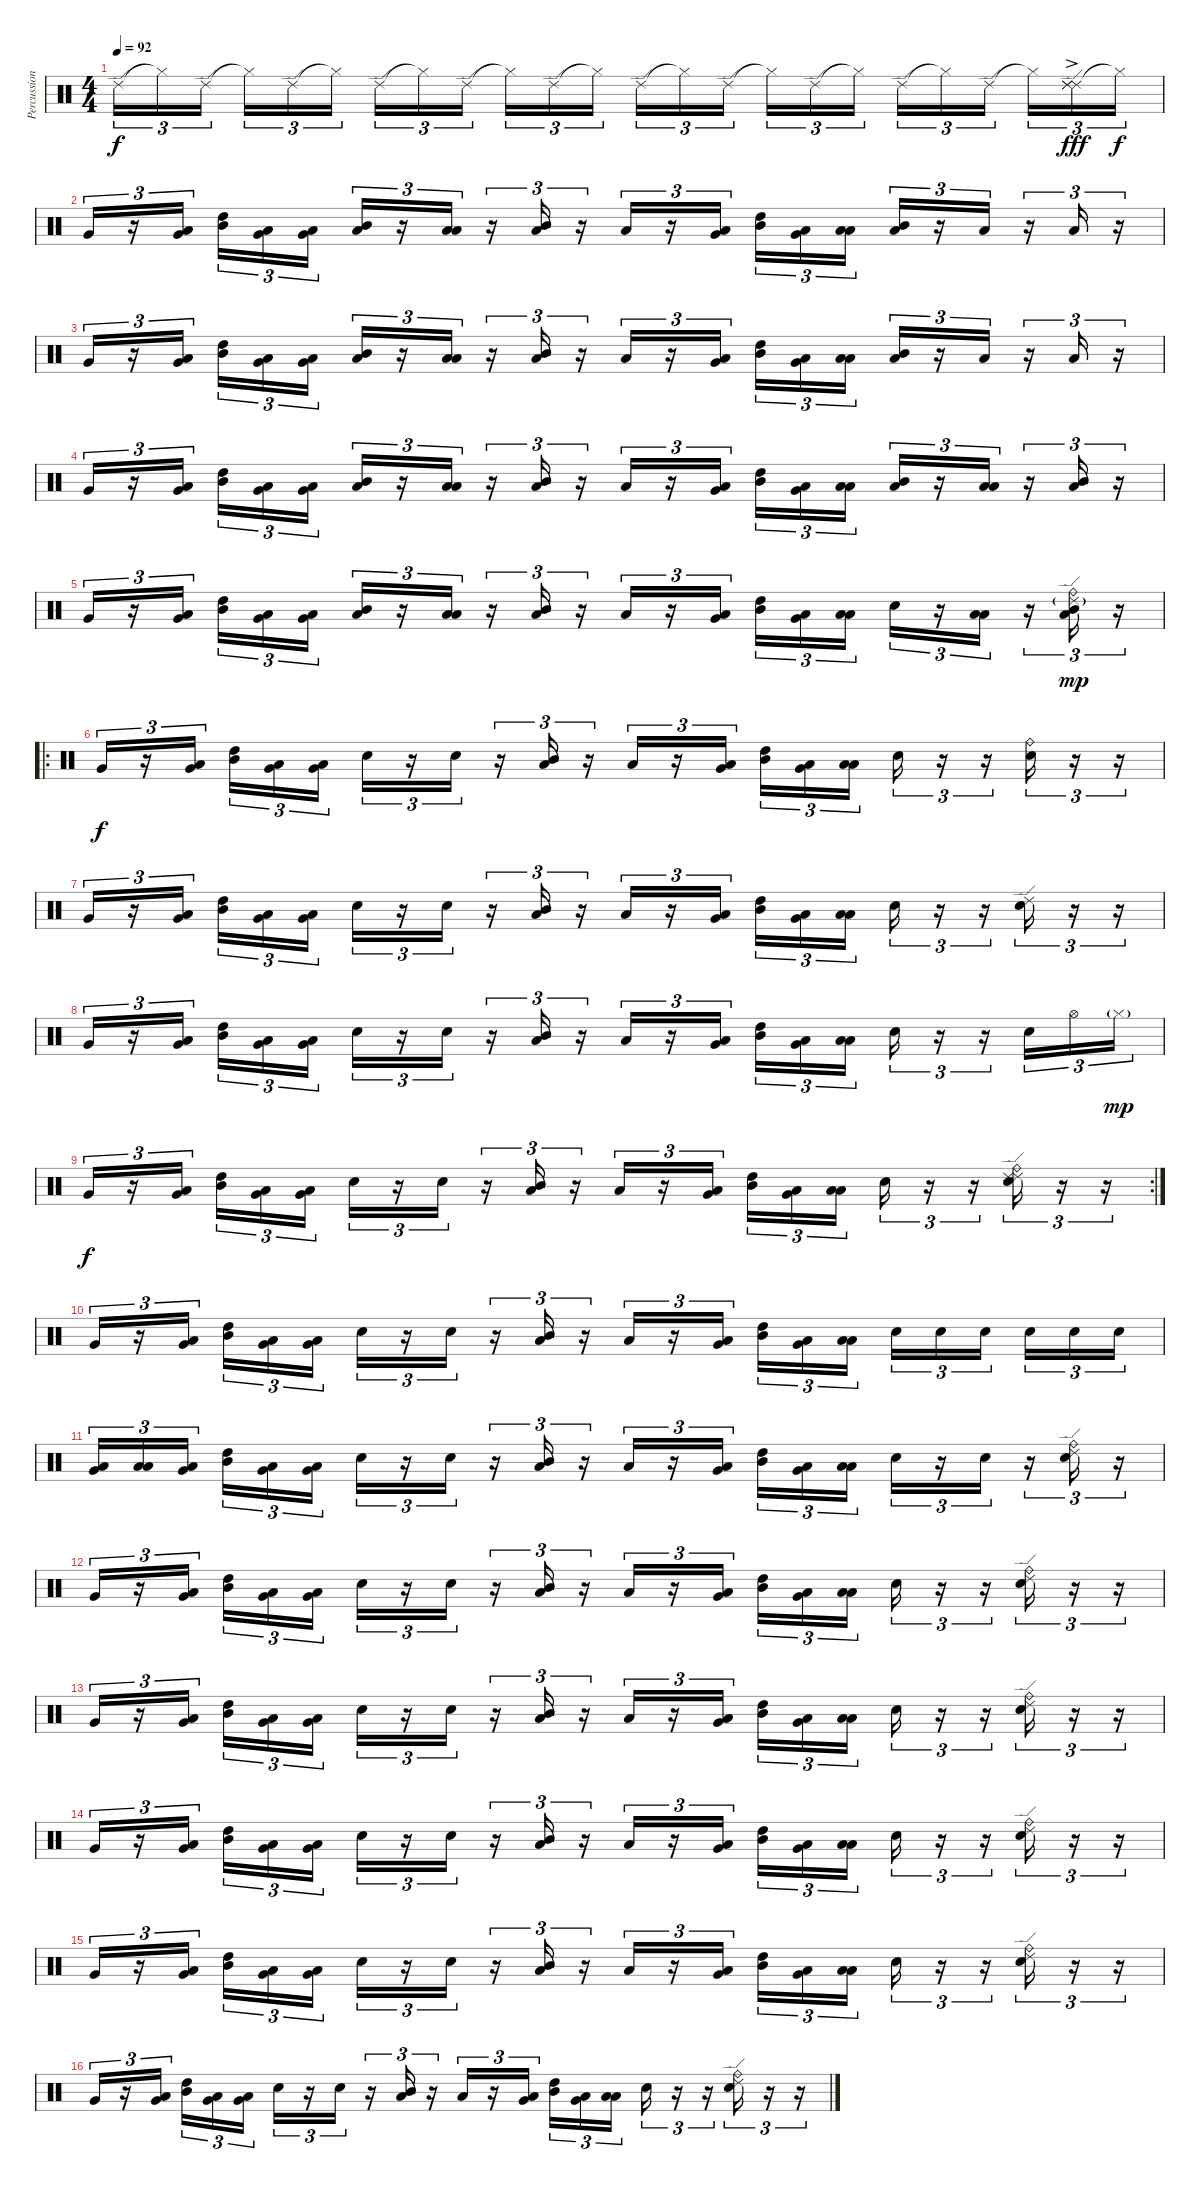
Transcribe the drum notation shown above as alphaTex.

\track ("Percussions" "Percussion") {instrument percussion}
\staff {score}
\articulation defaults
\ts (4 4)
\tempo 92
\clef neutral
\ks c "Ride (edge) 2".16{tu (3 2) dy f} "Hi-Hat (closed)"{t}.16{tu (3 2)} "Ride (edge) 2".16{tu (3 2)} "Hi-Hat (closed)"{t}.16{tu (3 2)} "Ride (edge) 2".16{tu (3 2)} "Hi-Hat (closed)"{t}.16{tu (3 2)} "Ride (edge) 2".16{tu (3 2)} "Hi-Hat (closed)"{t}.16{tu (3 2)} "Ride (edge) 2".16{tu (3 2)} "Hi-Hat (closed)"{t}.16{tu (3 2)} "Ride (edge) 2".16{tu (3 2)} "Hi-Hat (closed)"{t}.16{tu (3 2)} "Ride (edge) 2".16{tu (3 2)} "Hi-Hat (closed)"{t}.16{tu (3 2)} "Ride (edge) 2".16{tu (3 2)} "Hi-Hat (closed)"{t}.16{tu (3 2)} "Ride (edge) 2".16{tu (3 2)} "Hi-Hat (closed)"{t}.16{tu (3 2)} "Ride (edge) 2".16{tu (3 2)} "Hi-Hat (closed)"{t}.16{tu (3 2)} "Ride (edge) 2".16{tu (3 2)} "Hi-Hat (closed)"{t}.16{tu (3 2)}
("Ride (edge) 2" "Ride (edge) 2" "Ride (edge) 2"{ac}).16{tu (3 2) dy fff} "Hi-Hat (closed)"{t}.16{tu (3 2) dy f} |
"Very Low Tom (hit)".16{tu (3 2)} r.16{tu (3 2)} ("Very Low Tom (hit)" "Low Tom (hit)").16{tu (3 2)} ("Mid Tom (hit)" "High Tom (hit)").16{tu (3 2)} ("Low Tom (hit)" "Very Low Tom (hit)").16{tu (3 2)} ("Low Tom (hit)" "Very Low Tom (hit)").16{tu (3 2)} ("Low Tom (hit)" "Mid Tom (hit)").16{tu (3 2)} r.16{tu (3 2)} ("Low Floor Tom (hit)" "Low Tom (hit)").16{tu (3 2)} r.16{tu (3 2)} ("Low Tom (hit)" "Mid Tom (hit)").16{tu (3 2)} r.16{tu (3 2)} "Low Floor Tom (hit)".16{tu (3 2)} r.16{tu (3 2)} ("Very Low Tom (hit)" "Low Tom (hit)").16{tu (3 2)} ("Mid Tom (hit)" "High Tom (hit)").16{tu (3 2)} ("Low Tom (hit)" "Very Low Tom (hit)").16{tu (3 2)} ("Low Floor Tom (hit)" "Low Tom (hit)").16{tu (3 2)} ("Low Tom (hit)" "Mid Tom (hit)").16{tu (3 2)} r.16{tu (3 2)} "Low Floor Tom (hit)".16{tu (3 2)} r.16{tu (3 2)} "Low Floor Tom (hit)".16{tu (3 2)} r.16{tu (3 2)} |
"Very Low Tom (hit)".16{tu (3 2)} r.16{tu (3 2)} ("Very Low Tom (hit)" "Low Tom (hit)").16{tu (3 2)} ("Mid Tom (hit)" "High Tom (hit)").16{tu (3 2)} ("Low Tom (hit)" "Very Low Tom (hit)").16{tu (3 2)} ("Low Tom (hit)" "Very Low Tom (hit)").16{tu (3 2)} ("Low Tom (hit)" "Mid Tom (hit)").16{tu (3 2)} r.16{tu (3 2)} ("Low Floor Tom (hit)" "Low Tom (hit)").16{tu (3 2)} r.16{tu (3 2)} ("Low Tom (hit)" "Mid Tom (hit)").16{tu (3 2)} r.16{tu (3 2)} "Low Floor Tom (hit)".16{tu (3 2)} r.16{tu (3 2)} ("Very Low Tom (hit)" "Low Tom (hit)").16{tu (3 2)} ("Mid Tom (hit)" "High Tom (hit)").16{tu (3 2)} ("Low Tom (hit)" "Very Low Tom (hit)").16{tu (3 2)} ("Low Floor Tom (hit)" "Low Tom (hit)").16{tu (3 2)} ("Low Tom (hit)" "Mid Tom (hit)").16{tu (3 2)} r.16{tu (3 2)} "Low Floor Tom (hit)".16{tu (3 2)} r.16{tu (3 2)} "Low Floor Tom (hit)".16{tu (3 2)} r.16{tu (3 2)} |
"Very Low Tom (hit)".16{tu (3 2)} r.16{tu (3 2)} ("Very Low Tom (hit)" "Low Tom (hit)").16{tu (3 2)} ("Mid Tom (hit)" "High Tom (hit)").16{tu (3 2)} ("Low Tom (hit)" "Very Low Tom (hit)").16{tu (3 2)} ("Low Tom (hit)" "Very Low Tom (hit)").16{tu (3 2)} ("Low Tom (hit)" "Mid Tom (hit)").16{tu (3 2)} r.16{tu (3 2)} ("Low Floor Tom (hit)" "Low Tom (hit)").16{tu (3 2)} r.16{tu (3 2)} ("Low Tom (hit)" "Mid Tom (hit)").16{tu (3 2)} r.16{tu (3 2)} "Low Floor Tom (hit)".16{tu (3 2)} r.16{tu (3 2)} ("Very Low Tom (hit)" "Low Tom (hit)").16{tu (3 2)} ("Mid Tom (hit)" "High Tom (hit)").16{tu (3 2)} ("Low Tom (hit)" "Very Low Tom (hit)").16{tu (3 2)} ("Low Floor Tom (hit)" "Low Tom (hit)").16{tu (3 2)} ("Low Tom (hit)" "Mid Tom (hit)").16{tu (3 2)} r.16{tu (3 2)} ("Low Floor Tom (hit)" "Low Tom (hit)").16{tu (3 2)} r.16{tu (3 2)} ("Low Tom (hit)" "Mid Tom (hit)").16{tu (3 2)} r.16{tu (3 2)} |
"Very Low Tom (hit)".16{tu (3 2)} r.16{tu (3 2)} ("Very Low Tom (hit)" "Low Tom (hit)").16{tu (3 2)} ("Mid Tom (hit)" "High Tom (hit)").16{tu (3 2)} ("Low Tom (hit)" "Very Low Tom (hit)").16{tu (3 2)} ("Low Tom (hit)" "Very Low Tom (hit)").16{tu (3 2)} ("Low Tom (hit)" "Mid Tom (hit)").16{tu (3 2)} r.16{tu (3 2)} ("Low Floor Tom (hit)" "Low Tom (hit)").16{tu (3 2)} r.16{tu (3 2)} ("Low Tom (hit)" "Mid Tom (hit)").16{tu (3 2)} r.16{tu (3 2)} "Low Floor Tom (hit)".16{tu (3 2)} r.16{tu (3 2)} ("Very Low Tom (hit)" "Low Tom (hit)").16{tu (3 2)} ("Mid Tom (hit)" "High Tom (hit)").16{tu (3 2)} ("Low Tom (hit)" "Very Low Tom (hit)").16{tu (3 2)} ("Low Floor Tom (hit)" "Low Tom (hit)").16{tu (3 2)} "Electric Snare (hit)".16{tu (3 2)} r.16{tu (3 2)} ("Low Floor Tom (hit)" "Low Tom (hit)").16{tu (3 2)} r.16{tu (3 2)} ("Ride (bell)" "Ride (edge) 2"{g} "Low Tom (hit)" "Mid Tom (hit)").16{tu (3 2) dy mp} r.16{tu (3 2)} |
\ro "Very Low Tom (hit)".16{tu (3 2) dy f}
r.16{tu (3 2)} ("Very Low Tom (hit)" "Low Tom (hit)").16{tu (3 2)} ("Mid Tom (hit)" "High Tom (hit)").16{tu (3 2)} ("Low Tom (hit)" "Very Low Tom (hit)").16{tu (3 2)} ("Low Tom (hit)" "Very Low Tom (hit)").16{tu (3 2)} "Electric Snare (hit)".16{tu (3 2)} r.16{tu (3 2)} "Electric Snare (hit)".16{tu (3 2)} r.16{tu (3 2)} ("Low Tom (hit)" "Mid Tom (hit)").16{tu (3 2)} r.16{tu (3 2)} "Low Floor Tom (hit)".16{tu (3 2)} r.16{tu (3 2)} ("Very Low Tom (hit)" "Low Tom (hit)").16{tu (3 2)} ("Mid Tom (hit)" "High Tom (hit)").16{tu (3 2)} ("Low Tom (hit)" "Very Low Tom (hit)").16{tu (3 2)} ("Low Floor Tom (hit)" "Low Tom (hit)").16{tu (3 2)} "Electric Snare (hit)".16{tu (3 2)} r.16{tu (3 2)} r.16{tu (3 2)} ("Ride (bell)" "Electric Snare (hit)").16{tu (3 2)} r.16{tu (3 2)} r.16{tu (3 2)} |
"Very Low Tom (hit)".16{tu (3 2)} r.16{tu (3 2)} ("Very Low Tom (hit)" "Low Tom (hit)").16{tu (3 2)} ("Mid Tom (hit)" "High Tom (hit)").16{tu (3 2)} ("Low Tom (hit)" "Very Low Tom (hit)").16{tu (3 2)} ("Low Tom (hit)" "Very Low Tom (hit)").16{tu (3 2)} "Electric Snare (hit)".16{tu (3 2)} r.16{tu (3 2)} "Electric Snare (hit)".16{tu (3 2)} r.16{tu (3 2)} ("Low Tom (hit)" "Mid Tom (hit)").16{tu (3 2)} r.16{tu (3 2)} "Low Floor Tom (hit)".16{tu (3 2)} r.16{tu (3 2)} ("Very Low Tom (hit)" "Low Tom (hit)").16{tu (3 2)} ("Mid Tom (hit)" "High Tom (hit)").16{tu (3 2)} ("Low Tom (hit)" "Very Low Tom (hit)").16{tu (3 2)} ("Low Floor Tom (hit)" "Low Tom (hit)").16{tu (3 2)} "Electric Snare (hit)".16{tu (3 2)} r.16{tu (3 2)} r.16{tu (3 2)} ("Ride (edge) 2" "Electric Snare (hit)").16{tu (3 2)} r.16{tu (3 2)} r.16{tu (3 2)} |
"Very Low Tom (hit)".16{tu (3 2)} r.16{tu (3 2)} ("Very Low Tom (hit)" "Low Tom (hit)").16{tu (3 2)} ("Mid Tom (hit)" "High Tom (hit)").16{tu (3 2)} ("Low Tom (hit)" "Very Low Tom (hit)").16{tu (3 2)} ("Low Tom (hit)" "Very Low Tom (hit)").16{tu (3 2)} "Electric Snare (hit)".16{tu (3 2)} r.16{tu (3 2)} "Electric Snare (hit)".16{tu (3 2)} r.16{tu (3 2)} ("Low Tom (hit)" "Mid Tom (hit)").16{tu (3 2)} r.16{tu (3 2)} "Low Floor Tom (hit)".16{tu (3 2)} r.16{tu (3 2)} ("Very Low Tom (hit)" "Low Tom (hit)").16{tu (3 2)} ("Mid Tom (hit)" "High Tom (hit)").16{tu (3 2)} ("Low Tom (hit)" "Very Low Tom (hit)").16{tu (3 2)} ("Low Floor Tom (hit)" "Low Tom (hit)").16{tu (3 2)} "Electric Snare (hit)".16{tu (3 2)} r.16{tu (3 2)} r.16{tu (3 2)} "Electric Snare (hit)".16{tu (3 2)} "Hi-Hat (open)".16{tu (3 2)} "Hi-Hat (closed)"{g}.16{tu (3 2) dy mp} |
\rc 2 "Very Low Tom (hit)".16{tu (3 2) dy f}
r.16{tu (3 2)} ("Very Low Tom (hit)" "Low Tom (hit)").16{tu (3 2)} ("Mid Tom (hit)" "High Tom (hit)").16{tu (3 2)} ("Low Tom (hit)" "Very Low Tom (hit)").16{tu (3 2)} ("Low Tom (hit)" "Very Low Tom (hit)").16{tu (3 2)} "Electric Snare (hit)".16{tu (3 2)} r.16{tu (3 2)} "Electric Snare (hit)".16{tu (3 2)} r.16{tu (3 2)} ("Low Tom (hit)" "Mid Tom (hit)").16{tu (3 2)} r.16{tu (3 2)} "Low Floor Tom (hit)".16{tu (3 2)} r.16{tu (3 2)} ("Very Low Tom (hit)" "Low Tom (hit)").16{tu (3 2)} ("Mid Tom (hit)" "High Tom (hit)").16{tu (3 2)} ("Low Tom (hit)" "Very Low Tom (hit)").16{tu (3 2)} ("Low Floor Tom (hit)" "Low Tom (hit)").16{tu (3 2)} "Electric Snare (hit)".16{tu (3 2)} r.16{tu (3 2)} r.16{tu (3 2)} ("Ride (bell)" "Ride (edge) 2" "Ride (edge) 2" "Electric Snare (hit)").16{tu (3 2)} r.16{tu (3 2)} r.16{tu (3 2)} |
"Very Low Tom (hit)".16{tu (3 2)} r.16{tu (3 2)} ("Very Low Tom (hit)" "Low Tom (hit)").16{tu (3 2)} ("Mid Tom (hit)" "High Tom (hit)").16{tu (3 2)} ("Low Tom (hit)" "Very Low Tom (hit)").16{tu (3 2)} ("Low Tom (hit)" "Very Low Tom (hit)").16{tu (3 2)} "Electric Snare (hit)".16{tu (3 2)} r.16{tu (3 2)} "Electric Snare (hit)".16{tu (3 2)} r.16{tu (3 2)} ("Low Tom (hit)" "Mid Tom (hit)").16{tu (3 2)} r.16{tu (3 2)} "Low Floor Tom (hit)".16{tu (3 2)} r.16{tu (3 2)} ("Very Low Tom (hit)" "Low Tom (hit)").16{tu (3 2)} ("Mid Tom (hit)" "High Tom (hit)").16{tu (3 2)} ("Low Tom (hit)" "Very Low Tom (hit)").16{tu (3 2)} ("Low Floor Tom (hit)" "Low Tom (hit)").16{tu (3 2)} "Electric Snare (hit)".16{tu (3 2)} "Electric Snare (hit)".16{tu (3 2)} "Electric Snare (hit)".16{tu (3 2)} "Electric Snare (hit)".16{tu (3 2)} "Electric Snare (hit)".16{tu (3 2)} "Electric Snare (hit)".16{tu (3 2)} |
("Low Floor Tom (hit)" "Very Low Tom (hit)").16{tu (3 2)} ("Low Floor Tom (hit)" "Low Floor Tom (hit)").16{tu (3 2)} ("Very Low Tom (hit)" "Low Tom (hit)").16{tu (3 2)} ("Mid Tom (hit)" "High Tom (hit)").16{tu (3 2)} ("Low Tom (hit)" "Very Low Tom (hit)").16{tu (3 2)} ("Low Tom (hit)" "Very Low Tom (hit)").16{tu (3 2)} "Electric Snare (hit)".16{tu (3 2)} r.16{tu (3 2)} "Electric Snare (hit)".16{tu (3 2)} r.16{tu (3 2)} ("Low Tom (hit)" "Mid Tom (hit)").16{tu (3 2)} r.16{tu (3 2)} "Low Floor Tom (hit)".16{tu (3 2)} r.16{tu (3 2)} ("Very Low Tom (hit)" "Low Tom (hit)").16{tu (3 2)} ("Mid Tom (hit)" "High Tom (hit)").16{tu (3 2)} ("Low Tom (hit)" "Very Low Tom (hit)").16{tu (3 2)} ("Low Floor Tom (hit)" "Low Tom (hit)").16{tu (3 2)} "Electric Snare (hit)".16{tu (3 2)} r.16{tu (3 2)} "Electric Snare (hit)".16{tu (3 2)} r.16{tu (3 2)} ("Ride (edge) 2" "Ride (bell)" "Electric Snare (hit)").16{tu (3 2)} r.16{tu (3 2)} |
"Very Low Tom (hit)".16{tu (3 2)} r.16{tu (3 2)} ("Very Low Tom (hit)" "Low Tom (hit)").16{tu (3 2)} ("Mid Tom (hit)" "High Tom (hit)").16{tu (3 2)} ("Low Tom (hit)" "Very Low Tom (hit)").16{tu (3 2)} ("Low Tom (hit)" "Very Low Tom (hit)").16{tu (3 2)} "Electric Snare (hit)".16{tu (3 2)} r.16{tu (3 2)} "Electric Snare (hit)".16{tu (3 2)} r.16{tu (3 2)} ("Low Tom (hit)" "Mid Tom (hit)").16{tu (3 2)} r.16{tu (3 2)} "Low Floor Tom (hit)".16{tu (3 2)} r.16{tu (3 2)} ("Very Low Tom (hit)" "Low Tom (hit)").16{tu (3 2)} ("Mid Tom (hit)" "High Tom (hit)").16{tu (3 2)} ("Low Tom (hit)" "Very Low Tom (hit)").16{tu (3 2)} ("Low Floor Tom (hit)" "Low Tom (hit)").16{tu (3 2)} "Electric Snare (hit)".16{tu (3 2)} r.16{tu (3 2)} r.16{tu (3 2)} ("Ride (bell)" "Ride (edge) 2" "Electric Snare (hit)").16{tu (3 2)} r.16{tu (3 2)} r.16{tu (3 2)} |
"Very Low Tom (hit)".16{tu (3 2)} r.16{tu (3 2)} ("Very Low Tom (hit)" "Low Tom (hit)").16{tu (3 2)} ("Mid Tom (hit)" "High Tom (hit)").16{tu (3 2)} ("Low Tom (hit)" "Very Low Tom (hit)").16{tu (3 2)} ("Low Tom (hit)" "Very Low Tom (hit)").16{tu (3 2)} "Electric Snare (hit)".16{tu (3 2)} r.16{tu (3 2)} "Electric Snare (hit)".16{tu (3 2)} r.16{tu (3 2)} ("Low Tom (hit)" "Mid Tom (hit)").16{tu (3 2)} r.16{tu (3 2)} "Low Floor Tom (hit)".16{tu (3 2)} r.16{tu (3 2)} ("Very Low Tom (hit)" "Low Tom (hit)").16{tu (3 2)} ("Mid Tom (hit)" "High Tom (hit)").16{tu (3 2)} ("Low Tom (hit)" "Very Low Tom (hit)").16{tu (3 2)} ("Low Floor Tom (hit)" "Low Tom (hit)").16{tu (3 2)} "Electric Snare (hit)".16{tu (3 2)} r.16{tu (3 2)} r.16{tu (3 2)} ("Ride (bell)" "Ride (edge) 2" "Electric Snare (hit)").16{tu (3 2)} r.16{tu (3 2)} r.16{tu (3 2)} |
"Very Low Tom (hit)".16{tu (3 2)} r.16{tu (3 2)} ("Very Low Tom (hit)" "Low Tom (hit)").16{tu (3 2)} ("Mid Tom (hit)" "High Tom (hit)").16{tu (3 2)} ("Low Tom (hit)" "Very Low Tom (hit)").16{tu (3 2)} ("Low Tom (hit)" "Very Low Tom (hit)").16{tu (3 2)} "Electric Snare (hit)".16{tu (3 2)} r.16{tu (3 2)} "Electric Snare (hit)".16{tu (3 2)} r.16{tu (3 2)} ("Low Tom (hit)" "Mid Tom (hit)").16{tu (3 2)} r.16{tu (3 2)} "Low Floor Tom (hit)".16{tu (3 2)} r.16{tu (3 2)} ("Very Low Tom (hit)" "Low Tom (hit)").16{tu (3 2)} ("Mid Tom (hit)" "High Tom (hit)").16{tu (3 2)} ("Low Tom (hit)" "Very Low Tom (hit)").16{tu (3 2)} ("Low Floor Tom (hit)" "Low Tom (hit)").16{tu (3 2)} "Electric Snare (hit)".16{tu (3 2)} r.16{tu (3 2)} r.16{tu (3 2)} ("Ride (bell)" "Ride (edge) 2" "Electric Snare (hit)").16{tu (3 2)} r.16{tu (3 2)} r.16{tu (3 2)} |
"Very Low Tom (hit)".16{tu (3 2)} r.16{tu (3 2)} ("Very Low Tom (hit)" "Low Tom (hit)").16{tu (3 2)} ("Mid Tom (hit)" "High Tom (hit)").16{tu (3 2)} ("Low Tom (hit)" "Very Low Tom (hit)").16{tu (3 2)} ("Low Tom (hit)" "Very Low Tom (hit)").16{tu (3 2)} "Electric Snare (hit)".16{tu (3 2)} r.16{tu (3 2)} "Electric Snare (hit)".16{tu (3 2)} r.16{tu (3 2)} ("Low Tom (hit)" "Mid Tom (hit)").16{tu (3 2)} r.16{tu (3 2)} "Low Floor Tom (hit)".16{tu (3 2)} r.16{tu (3 2)} ("Very Low Tom (hit)" "Low Tom (hit)").16{tu (3 2)} ("Mid Tom (hit)" "High Tom (hit)").16{tu (3 2)} ("Low Tom (hit)" "Very Low Tom (hit)").16{tu (3 2)} ("Low Floor Tom (hit)" "Low Tom (hit)").16{tu (3 2)} "Electric Snare (hit)".16{tu (3 2)} r.16{tu (3 2)} r.16{tu (3 2)} ("Ride (bell)" "Ride (edge) 2" "Electric Snare (hit)").16{tu (3 2)} r.16{tu (3 2)} r.16{tu (3 2)} |
"Very Low Tom (hit)".16{tu (3 2)} r.16{tu (3 2)} ("Very Low Tom (hit)" "Low Tom (hit)").16{tu (3 2)} ("Mid Tom (hit)" "High Tom (hit)").16{tu (3 2)} ("Low Tom (hit)" "Very Low Tom (hit)").16{tu (3 2)} ("Low Tom (hit)" "Very Low Tom (hit)").16{tu (3 2)} "Electric Snare (hit)".16{tu (3 2)} r.16{tu (3 2)} "Electric Snare (hit)".16{tu (3 2)} r.16{tu (3 2)} ("Low Tom (hit)" "Mid Tom (hit)").16{tu (3 2)} r.16{tu (3 2)} "Low Floor Tom (hit)".16{tu (3 2)} r.16{tu (3 2)} ("Very Low Tom (hit)" "Low Tom (hit)").16{tu (3 2)} ("Mid Tom (hit)" "High Tom (hit)").16{tu (3 2)} ("Low Tom (hit)" "Very Low Tom (hit)").16{tu (3 2)} ("Low Floor Tom (hit)" "Low Tom (hit)").16{tu (3 2)} "Electric Snare (hit)".16{tu (3 2)} r.16{tu (3 2)} r.16{tu (3 2)} ("Ride (bell)" "Ride (edge) 2" "Electric Snare (hit)").16{tu (3 2)} r.16{tu (3 2)} r.16{tu (3 2)}
